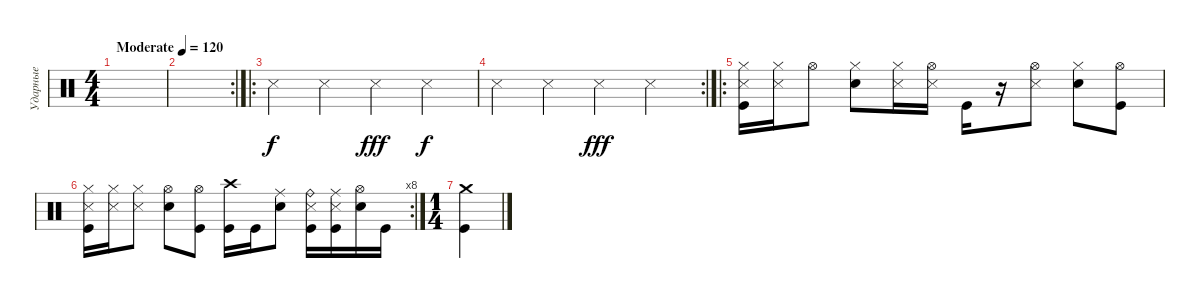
\track ("Ударные" "Ударные") {instrument percussion}
\staff {score}
\articulation defaults
\ts (4 4)
\tempo (120 "Moderate")
\clef neutral
\ks c
|
\rc 2
|
\ro "Snare (side stick) 3".4 "Snare (side stick) 3".4 "Snare (side stick) 3".4{dy fff} "Snare (side stick) 3".4{dy f}
|
\rc 2 "Snare (side stick) 3".4 "Snare (side stick) 3".4 "Snare (side stick) 3".4{dy fff} "Snare (side stick) 3".4
|
\ro
("Hi-Hat (closed)" "Snare (side stick) 3" "Kick (hit)").16 ("Hi-Hat (closed)" "Snare (side stick) 3").16 "Hi-Hat (open)".8 ("Hi-Hat (closed)" "Electric Snare (hit)").8 ("Hi-Hat (closed)" "Snare (side stick) 3").16 ("Hi-Hat (open)" "Snare (side stick) 3").16 "Kick (hit)".16 r.16 ("Hi-Hat (open)" "Snare (side stick) 3").8 ("Hi-Hat (closed)" "Electric Snare (hit)").8 ("Hi-Hat (open)" "Kick (hit)").8 |
\rc 8
("Hi-Hat (closed)" "Snare (side stick) 3" "Kick (hit)").16 ("Hi-Hat (closed)" "Snare (side stick) 3").16 ("Hi-Hat (closed)" "Snare (side stick) 3").8 ("Hi-Hat (open)" "Electric Snare (hit)").8 ("Hi-Hat (open)" "Kick (hit)").8 ("Crash high (hit)" "Kick (hit)").16 "Kick (hit)".16 ("Ride (middle)" "Electric Snare (hit)").8 ("Ride (bell)" "Snare (side stick) 3" "Kick (hit)").16 ("Ride (middle)" "Snare (side stick) 3" "Kick (hit)").16 ("Hi-Hat (open)" "Electric Snare (hit)").16 "Kick (hit)".16 |
\ts (1 4)
("Crash medium (hit)" "Kick (hit)").4
